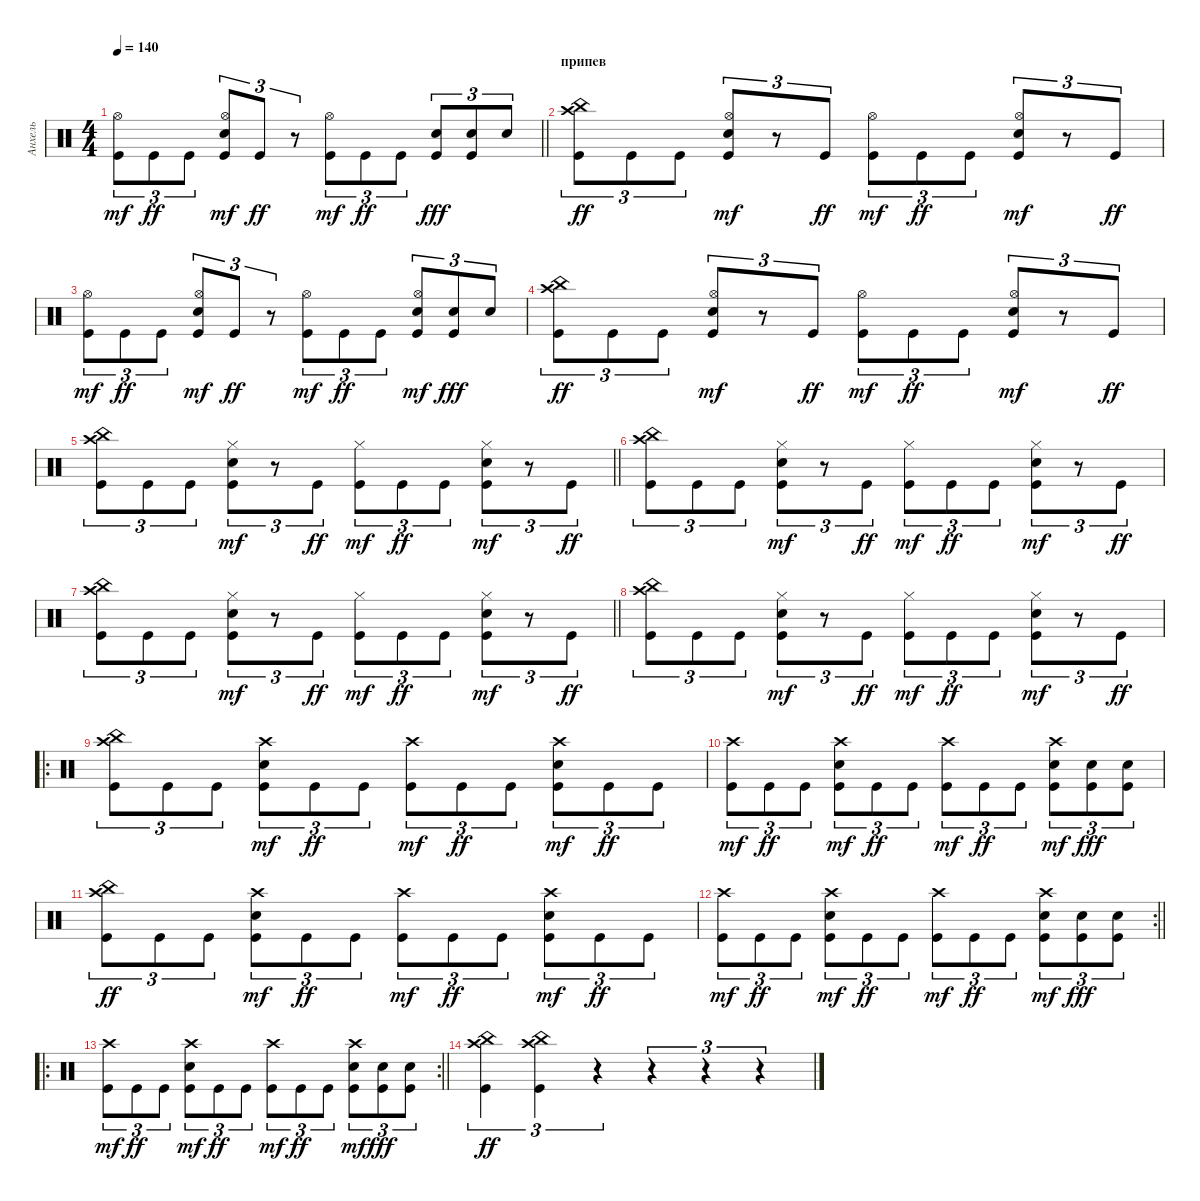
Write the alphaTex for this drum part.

\track ("Анхель" "Анхель") {instrument percussion}
\staff {score}
\articulation defaults
\ts (4 4)
\tempo 140
\clef neutral
\barLineRight lightlight
\ks c
("Kick (hit)" "Hi-Hat (open)").8{tu (3 2) dy mf} "Kick (hit)".8{tu (3 2) dy ff} "Kick (hit)".8{tu (3 2)} ("Kick (hit)" "Snare (hit) 2" "Hi-Hat (open)").8{tu (3 2) dy mf} "Kick (hit)".8{tu (3 2) dy ff} r.8{tu (3 2)} ("Kick (hit)" "Hi-Hat (open)").8{tu (3 2) dy mf} "Kick (hit)".8{tu (3 2) dy ff} "Kick (hit)".8{tu (3 2)} ("Kick (hit)" "Snare (hit) 2").8{tu (3 2) dy fff} ("Kick (hit)" "Snare (hit) 2").8{tu (3 2)} "Snare (hit) 2".8{tu (3 2)} |
\section ("" "припев")
("Kick (hit)" "China (hit)" "Crash high (hit)").8{tu (3 2) dy ff} "Kick (hit)".8{tu (3 2)} "Kick (hit)".8{tu (3 2)} ("Kick (hit)" "Snare (hit) 2" "Hi-Hat (open)").8{tu (3 2) dy mf} r.8{tu (3 2)} "Kick (hit)".8{tu (3 2) dy ff} ("Kick (hit)" "Hi-Hat (open)").8{tu (3 2) dy mf} "Kick (hit)".8{tu (3 2) dy ff} "Kick (hit)".8{tu (3 2)} ("Kick (hit)" "Snare (hit) 2" "Hi-Hat (open)").8{tu (3 2) dy mf} r.8{tu (3 2)} "Kick (hit)".8{tu (3 2) dy ff} |
("Kick (hit)" "Hi-Hat (open)").8{tu (3 2) dy mf} "Kick (hit)".8{tu (3 2) dy ff} "Kick (hit)".8{tu (3 2)} ("Kick (hit)" "Snare (hit) 2" "Hi-Hat (open)").8{tu (3 2) dy mf} "Kick (hit)".8{tu (3 2) dy ff} r.8{tu (3 2)} ("Kick (hit)" "Hi-Hat (open)").8{tu (3 2) dy mf} "Kick (hit)".8{tu (3 2) dy ff} "Kick (hit)".8{tu (3 2)} ("Kick (hit)" "Snare (hit) 2" "Hi-Hat (open)").8{tu (3 2) dy mf} ("Kick (hit)" "Snare (hit) 2").8{tu (3 2) dy fff} "Snare (hit) 2".8{tu (3 2)} |
("Kick (hit)" "China (hit)" "Crash high (hit)").8{tu (3 2) dy ff} "Kick (hit)".8{tu (3 2)} "Kick (hit)".8{tu (3 2)} ("Kick (hit)" "Snare (hit) 2" "Hi-Hat (open)").8{tu (3 2) dy mf} r.8{tu (3 2)} "Kick (hit)".8{tu (3 2) dy ff} ("Kick (hit)" "Hi-Hat (open)").8{tu (3 2) dy mf} "Kick (hit)".8{tu (3 2) dy ff} "Kick (hit)".8{tu (3 2)} ("Kick (hit)" "Snare (hit) 2" "Hi-Hat (open)").8{tu (3 2) dy mf} r.8{tu (3 2)} "Kick (hit)".8{tu (3 2) dy ff} |
\barLineRight lightlight
("Kick (hit)" "China (hit)" "Crash high (hit)").8{tu (3 2)} "Kick (hit)".8{tu (3 2)} "Kick (hit)".8{tu (3 2)} ("Hi-Hat (closed)" "Snare (hit) 2" "Kick (hit)").8{tu (3 2) dy mf} r.8{tu (3 2)} "Kick (hit)".8{tu (3 2) dy ff} ("Kick (hit)" "Hi-Hat (closed)").8{tu (3 2) dy mf} "Kick (hit)".8{tu (3 2) dy ff} "Kick (hit)".8{tu (3 2)} ("Kick (hit)" "Snare (hit) 2" "Hi-Hat (closed)").8{tu (3 2) dy mf} r.8{tu (3 2)} "Kick (hit)".8{tu (3 2) dy ff} |
("Kick (hit)" "China (hit)" "Crash high (hit)").8{tu (3 2)} "Kick (hit)".8{tu (3 2)} "Kick (hit)".8{tu (3 2)} ("Hi-Hat (closed)" "Snare (hit) 2" "Kick (hit)").8{tu (3 2) dy mf} r.8{tu (3 2)} "Kick (hit)".8{tu (3 2) dy ff} ("Kick (hit)" "Hi-Hat (closed)").8{tu (3 2) dy mf} "Kick (hit)".8{tu (3 2) dy ff} "Kick (hit)".8{tu (3 2)} ("Kick (hit)" "Snare (hit) 2" "Hi-Hat (closed)").8{tu (3 2) dy mf} r.8{tu (3 2)} "Kick (hit)".8{tu (3 2) dy ff} |
\barLineRight lightlight
("Kick (hit)" "China (hit)" "Crash high (hit)").8{tu (3 2)} "Kick (hit)".8{tu (3 2)} "Kick (hit)".8{tu (3 2)} ("Hi-Hat (closed)" "Snare (hit) 2" "Kick (hit)").8{tu (3 2) dy mf} r.8{tu (3 2)} "Kick (hit)".8{tu (3 2) dy ff} ("Kick (hit)" "Hi-Hat (closed)").8{tu (3 2) dy mf} "Kick (hit)".8{tu (3 2) dy ff} "Kick (hit)".8{tu (3 2)} ("Kick (hit)" "Snare (hit) 2" "Hi-Hat (closed)").8{tu (3 2) dy mf} r.8{tu (3 2)} "Kick (hit)".8{tu (3 2) dy ff} |
("Kick (hit)" "China (hit)" "Crash high (hit)").8{tu (3 2)} "Kick (hit)".8{tu (3 2)} "Kick (hit)".8{tu (3 2)} ("Hi-Hat (closed)" "Snare (hit) 2" "Kick (hit)").8{tu (3 2) dy mf} r.8{tu (3 2)} "Kick (hit)".8{tu (3 2) dy ff} ("Kick (hit)" "Hi-Hat (closed)").8{tu (3 2) dy mf} "Kick (hit)".8{tu (3 2) dy ff} "Kick (hit)".8{tu (3 2)} ("Kick (hit)" "Snare (hit) 2" "Hi-Hat (closed)").8{tu (3 2) dy mf} r.8{tu (3 2)} "Kick (hit)".8{tu (3 2) dy ff} |
\ro
("Kick (hit)" "China (hit)" "Crash high (hit)").8{tu (3 2)} "Kick (hit)".8{tu (3 2)} "Kick (hit)".8{tu (3 2)} ("Kick (hit)" "Snare (hit) 2" "Crash high (hit)").8{tu (3 2) dy mf} "Kick (hit)".8{tu (3 2) dy ff} "Kick (hit)".8{tu (3 2)} ("Kick (hit)" "Crash high (hit)").8{tu (3 2) dy mf} "Kick (hit)".8{tu (3 2) dy ff} "Kick (hit)".8{tu (3 2)} ("Kick (hit)" "Snare (hit) 2" "Crash high (hit)").8{tu (3 2) dy mf} "Kick (hit)".8{tu (3 2) dy ff} "Kick (hit)".8{tu (3 2)} |
("Kick (hit)" "Crash high (hit)").8{tu (3 2) dy mf} "Kick (hit)".8{tu (3 2) dy ff} "Kick (hit)".8{tu (3 2)} ("Kick (hit)" "Snare (hit) 2" "Crash high (hit)").8{tu (3 2) dy mf} "Kick (hit)".8{tu (3 2) dy ff} "Kick (hit)".8{tu (3 2)} ("Kick (hit)" "Crash high (hit)").8{tu (3 2) dy mf} "Kick (hit)".8{tu (3 2) dy ff} "Kick (hit)".8{tu (3 2)} ("Kick (hit)" "Snare (hit) 2" "Crash high (hit)").8{tu (3 2) dy mf} ("Kick (hit)" "Snare (hit) 2").8{tu (3 2) dy fff} ("Kick (hit)" "Snare (hit) 2").8{tu (3 2)} |
("Kick (hit)" "China (hit)" "Crash high (hit)").8{tu (3 2) dy ff} "Kick (hit)".8{tu (3 2)} "Kick (hit)".8{tu (3 2)} ("Kick (hit)" "Snare (hit) 2" "Crash high (hit)").8{tu (3 2) dy mf} "Kick (hit)".8{tu (3 2) dy ff} "Kick (hit)".8{tu (3 2)} ("Kick (hit)" "Crash high (hit)").8{tu (3 2) dy mf} "Kick (hit)".8{tu (3 2) dy ff} "Kick (hit)".8{tu (3 2)} ("Kick (hit)" "Snare (hit) 2" "Crash high (hit)").8{tu (3 2) dy mf} "Kick (hit)".8{tu (3 2) dy ff} "Kick (hit)".8{tu (3 2)} |
\rc 2
\barLineRight lightlight
("Kick (hit)" "Crash high (hit)").8{tu (3 2) dy mf} "Kick (hit)".8{tu (3 2) dy ff} "Kick (hit)".8{tu (3 2)} ("Kick (hit)" "Snare (hit) 2" "Crash high (hit)").8{tu (3 2) dy mf} "Kick (hit)".8{tu (3 2) dy ff} "Kick (hit)".8{tu (3 2)} ("Kick (hit)" "Crash high (hit)").8{tu (3 2) dy mf} "Kick (hit)".8{tu (3 2) dy ff} "Kick (hit)".8{tu (3 2)} ("Kick (hit)" "Snare (hit) 2" "Crash high (hit)").8{tu (3 2) dy mf} ("Kick (hit)" "Snare (hit) 2").8{tu (3 2) dy fff} ("Kick (hit)" "Snare (hit) 2").8{tu (3 2)} |
\ro
\rc 2
\barLineRight lightlight
("Kick (hit)" "Crash high (hit)").8{tu (3 2) dy mf} "Kick (hit)".8{tu (3 2) dy ff} "Kick (hit)".8{tu (3 2)} ("Kick (hit)" "Snare (hit) 2" "Crash high (hit)").8{tu (3 2) dy mf} "Kick (hit)".8{tu (3 2) dy ff} "Kick (hit)".8{tu (3 2)} ("Kick (hit)" "Crash high (hit)").8{tu (3 2) dy mf} "Kick (hit)".8{tu (3 2) dy ff} "Kick (hit)".8{tu (3 2)} ("Kick (hit)" "Snare (hit) 2" "Crash high (hit)").8{tu (3 2) dy mf} ("Kick (hit)" "Snare (hit) 2").8{tu (3 2) dy fff} ("Kick (hit)" "Snare (hit) 2").8{tu (3 2)} |
("China (hit)" "Crash high (hit)" "Kick (hit)").4{tu (3 2) dy ff} ("Crash high (hit)" "China (hit)" "Kick (hit)").4{tu (3 2)} r.4{tu (3 2)} r.4{tu (3 2)} r.4{tu (3 2)} r.4{tu (3 2)}
